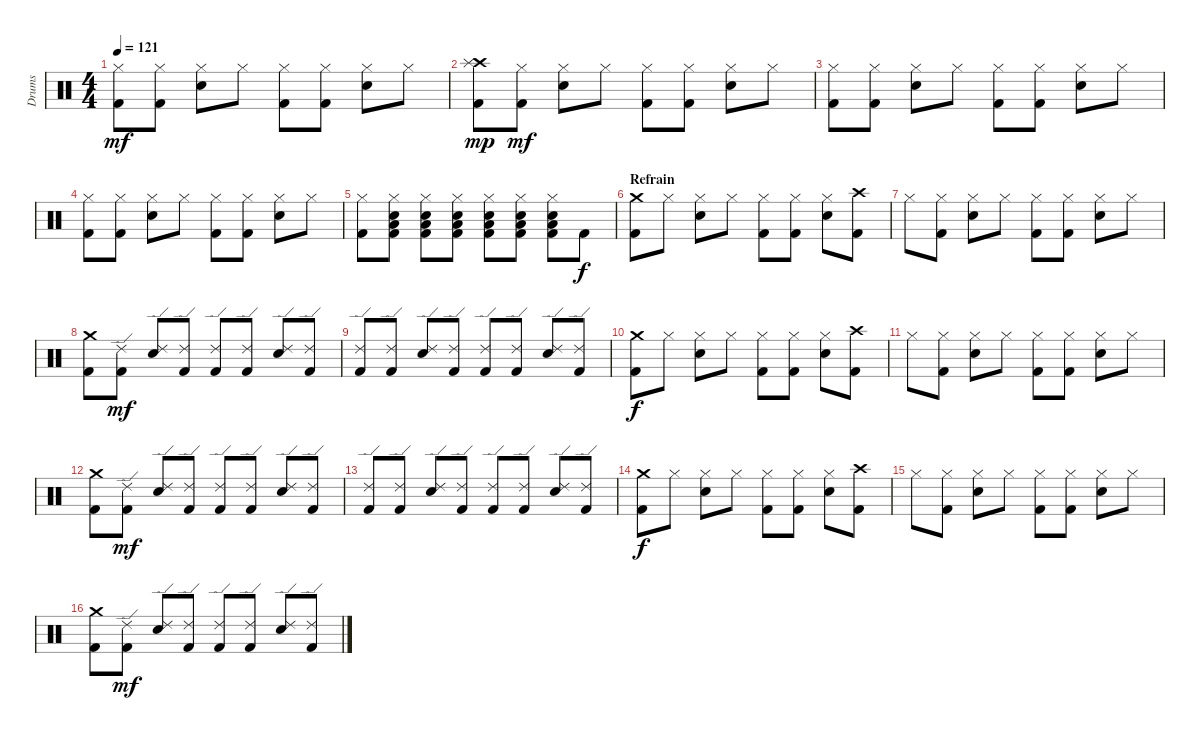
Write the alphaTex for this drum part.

\track ("Drums" "Drums") {instrument percussion}
\staff {score}
\articulation defaults
\ts (4 4)
\tempo 121
\clef neutral
\ks c
("Hi-Hat (closed)" "Kick (hit) 2").8{dy mf} ("Hi-Hat (closed)" "Kick (hit) 2").8 ("Hi-Hat (closed)" "Electric Snare (hit)").8 "Hi-Hat (closed)".8 ("Hi-Hat (closed)" "Kick (hit) 2").8 ("Hi-Hat (closed)" "Kick (hit) 2").8 ("Hi-Hat (closed)" "Electric Snare (hit)").8 "Hi-Hat (closed)".8 |
("Crash high (hit)" "Splash (hit)" "Kick (hit) 2").8{dy mp} ("Hi-Hat (closed)" "Kick (hit) 2").8{dy mf} ("Hi-Hat (closed)" "Electric Snare (hit)").8 "Hi-Hat (closed)".8 ("Hi-Hat (closed)" "Kick (hit) 2").8 ("Hi-Hat (closed)" "Kick (hit) 2").8 ("Hi-Hat (closed)" "Electric Snare (hit)").8 "Hi-Hat (closed)".8 |
("Hi-Hat (closed)" "Kick (hit) 2").8 ("Hi-Hat (closed)" "Kick (hit) 2").8 ("Hi-Hat (closed)" "Electric Snare (hit)").8 "Hi-Hat (closed)".8 ("Hi-Hat (closed)" "Kick (hit) 2").8 ("Hi-Hat (closed)" "Kick (hit) 2").8 ("Hi-Hat (closed)" "Electric Snare (hit)").8 "Hi-Hat (closed)".8 |
("Hi-Hat (closed)" "Kick (hit) 2").8 ("Hi-Hat (closed)" "Kick (hit) 2").8 ("Hi-Hat (closed)" "Electric Snare (hit)").8 "Hi-Hat (closed)".8 ("Hi-Hat (closed)" "Kick (hit) 2").8 ("Hi-Hat (closed)" "Kick (hit) 2").8 ("Hi-Hat (closed)" "Electric Snare (hit)").8 "Hi-Hat (closed)".8 |
("Hi-Hat (closed)" "Kick (hit) 2").8 ("Hi-Hat (closed)" "Electric Snare (hit)" "Low Tom (hit)" "Kick (hit) 2").8 ("Hi-Hat (closed)" "Electric Snare (hit)" "Low Tom (hit)" "Kick (hit) 2").8 ("Hi-Hat (closed)" "Electric Snare (hit)" "Low Tom (hit)" "Kick (hit) 2").8 ("Hi-Hat (closed)" "Electric Snare (hit)" "Low Tom (hit)" "Kick (hit) 2").8 ("Hi-Hat (closed)" "Electric Snare (hit)" "Low Tom (hit)" "Kick (hit) 2").8 ("Hi-Hat (closed)" "Electric Snare (hit)" "Low Tom (hit)" "Kick (hit) 2").8 "Kick (hit) 2".8{dy f} |
\section ("" "Refrain")
("Crash medium (hit)" "Kick (hit) 2").8 "Hi-Hat (closed)".8 ("Hi-Hat (closed)" "Electric Snare (hit)").8 "Hi-Hat (closed)".8 ("Hi-Hat (closed)" "Kick (hit) 2").8 ("Hi-Hat (closed)" "Kick (hit) 2").8 ("Hi-Hat (closed)" "Electric Snare (hit)").8 ("Crash high (hit)" "Kick (hit) 2").8 |
"Hi-Hat (closed)".8 ("Hi-Hat (closed)" "Kick (hit) 2").8 ("Hi-Hat (closed)" "Electric Snare (hit)").8 "Hi-Hat (closed)".8 ("Hi-Hat (closed)" "Kick (hit) 2").8 ("Hi-Hat (closed)" "Kick (hit) 2").8 ("Hi-Hat (closed)" "Electric Snare (hit)").8 "Hi-Hat (closed)".8 |
("Crash medium (hit)" "Kick (hit) 2").8 ("Ride (edge) 2" "Kick (hit) 2").8{dy mf} ("Ride (edge) 2" "Electric Snare (hit)").8 ("Ride (edge) 2" "Kick (hit) 2").8 ("Ride (edge) 2" "Kick (hit) 2").8 ("Ride (edge) 2" "Kick (hit) 2").8 ("Ride (edge) 2" "Electric Snare (hit)").8 ("Ride (edge) 2" "Kick (hit) 2").8 |
("Ride (edge) 2" "Kick (hit) 2").8 ("Ride (edge) 2" "Kick (hit) 2").8 ("Ride (edge) 2" "Electric Snare (hit)").8 ("Ride (edge) 2" "Kick (hit) 2").8 ("Ride (edge) 2" "Kick (hit) 2").8 ("Ride (edge) 2" "Kick (hit) 2").8 ("Ride (edge) 2" "Electric Snare (hit)").8 ("Ride (edge) 2" "Kick (hit) 2").8 |
("Crash medium (hit)" "Kick (hit) 2").8{dy f} "Hi-Hat (closed)".8 ("Hi-Hat (closed)" "Electric Snare (hit)").8 "Hi-Hat (closed)".8 ("Hi-Hat (closed)" "Kick (hit) 2").8 ("Hi-Hat (closed)" "Kick (hit) 2").8 ("Hi-Hat (closed)" "Electric Snare (hit)").8 ("Crash high (hit)" "Kick (hit) 2").8 |
"Hi-Hat (closed)".8 ("Hi-Hat (closed)" "Kick (hit) 2").8 ("Hi-Hat (closed)" "Electric Snare (hit)").8 "Hi-Hat (closed)".8 ("Hi-Hat (closed)" "Kick (hit) 2").8 ("Hi-Hat (closed)" "Kick (hit) 2").8 ("Hi-Hat (closed)" "Electric Snare (hit)").8 "Hi-Hat (closed)".8 |
("Crash medium (hit)" "Kick (hit) 2").8 ("Ride (edge) 2" "Kick (hit) 2").8{dy mf} ("Ride (edge) 2" "Electric Snare (hit)").8 ("Ride (edge) 2" "Kick (hit) 2").8 ("Ride (edge) 2" "Kick (hit) 2").8 ("Ride (edge) 2" "Kick (hit) 2").8 ("Ride (edge) 2" "Electric Snare (hit)").8 ("Ride (edge) 2" "Kick (hit) 2").8 |
("Ride (edge) 2" "Kick (hit) 2").8 ("Ride (edge) 2" "Kick (hit) 2").8 ("Ride (edge) 2" "Electric Snare (hit)").8 ("Ride (edge) 2" "Kick (hit) 2").8 ("Ride (edge) 2" "Kick (hit) 2").8 ("Ride (edge) 2" "Kick (hit) 2").8 ("Ride (edge) 2" "Electric Snare (hit)").8 ("Ride (edge) 2" "Kick (hit) 2").8 |
("Crash medium (hit)" "Kick (hit) 2").8{dy f} "Hi-Hat (closed)".8 ("Hi-Hat (closed)" "Electric Snare (hit)").8 "Hi-Hat (closed)".8 ("Hi-Hat (closed)" "Kick (hit) 2").8 ("Hi-Hat (closed)" "Kick (hit) 2").8 ("Hi-Hat (closed)" "Electric Snare (hit)").8 ("Crash high (hit)" "Kick (hit) 2").8 |
"Hi-Hat (closed)".8 ("Hi-Hat (closed)" "Kick (hit) 2").8 ("Hi-Hat (closed)" "Electric Snare (hit)").8 "Hi-Hat (closed)".8 ("Hi-Hat (closed)" "Kick (hit) 2").8 ("Hi-Hat (closed)" "Kick (hit) 2").8 ("Hi-Hat (closed)" "Electric Snare (hit)").8 "Hi-Hat (closed)".8 |
("Crash medium (hit)" "Kick (hit) 2").8 ("Ride (edge) 2" "Kick (hit) 2").8{dy mf} ("Ride (edge) 2" "Electric Snare (hit)").8 ("Ride (edge) 2" "Kick (hit) 2").8 ("Ride (edge) 2" "Kick (hit) 2").8 ("Ride (edge) 2" "Kick (hit) 2").8 ("Ride (edge) 2" "Electric Snare (hit)").8 ("Ride (edge) 2" "Kick (hit) 2").8
